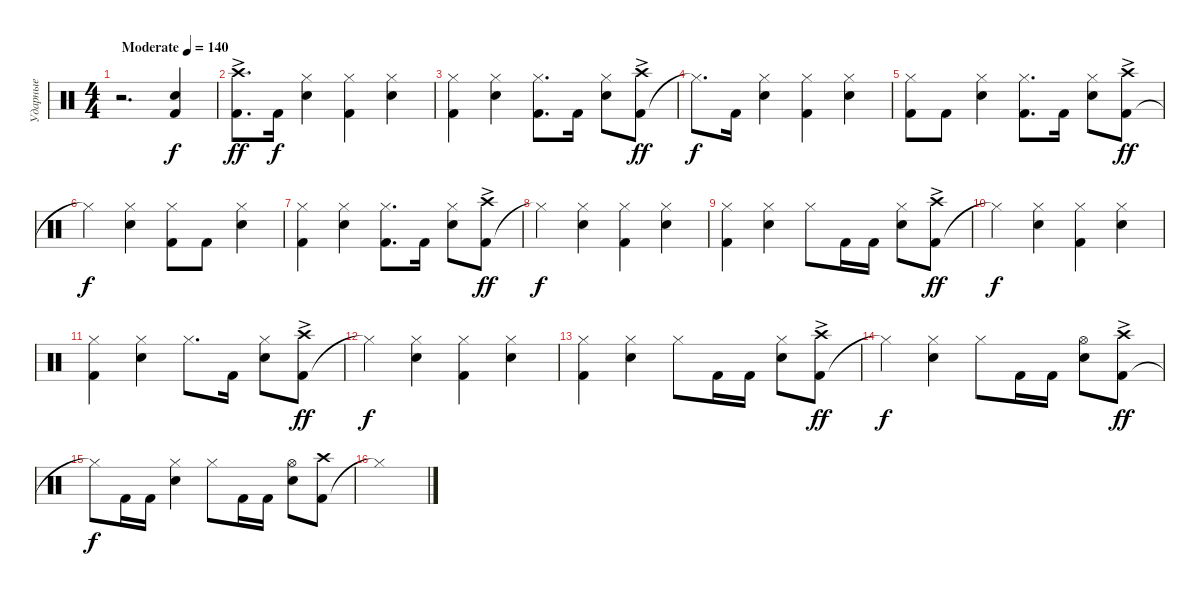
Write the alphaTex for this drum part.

\track ("Ударные" "Ударные") {instrument percussion}
\staff {score}
\articulation defaults
\ts (4 4)
\tempo (140 "Moderate")
\clef neutral
\ks c
r.2{d dy f} ("Kick (hit) 2" "Snare (hit) 2").4 |
("Kick (hit) 2" "Crash high (hit)"{ac}).8{d dy ff} "Kick (hit) 2".16{dy f} ("Snare (hit) 2" "Hi-Hat (closed)").4 ("Kick (hit) 2" "Hi-Hat (closed)").4 ("Snare (hit) 2" "Hi-Hat (closed)").4 |
("Kick (hit) 2" "Hi-Hat (closed)").4 ("Snare (hit) 2" "Hi-Hat (closed)").4 ("Kick (hit) 2" "Hi-Hat (closed)").8{d} "Kick (hit) 2".16 ("Snare (hit) 2" "Hi-Hat (closed)").8 ("Kick (hit) 2" "Crash high (hit)"{ac}).8{dy ff} |
"Hi-Hat (closed)"{t}.8{d dy f} "Kick (hit) 2".16 ("Snare (hit) 2" "Hi-Hat (closed)").4 ("Kick (hit) 2" "Hi-Hat (closed)").4 ("Snare (hit) 2" "Hi-Hat (closed)").4 |
("Kick (hit) 2" "Hi-Hat (closed)").8 "Kick (hit) 2".8 ("Snare (hit) 2" "Hi-Hat (closed)").4 ("Kick (hit) 2" "Hi-Hat (closed)").8{d} "Kick (hit) 2".16 ("Snare (hit) 2" "Hi-Hat (closed)").8 ("Kick (hit) 2" "Crash high (hit)"{ac}).8{dy ff} |
"Hi-Hat (closed)"{t}.4{dy f} ("Snare (hit) 2" "Hi-Hat (closed)").4 ("Kick (hit) 2" "Hi-Hat (closed)").8 "Kick (hit) 2".8 ("Snare (hit) 2" "Hi-Hat (closed)").4 |
("Kick (hit) 2" "Hi-Hat (closed)").4 ("Snare (hit) 2" "Hi-Hat (closed)").4 ("Kick (hit) 2" "Hi-Hat (closed)").8{d} "Kick (hit) 2".16 ("Snare (hit) 2" "Hi-Hat (closed)").8 ("Kick (hit) 2" "Crash high (hit)"{ac}).8{dy ff} |
"Hi-Hat (closed)"{t}.4{dy f} ("Snare (hit) 2" "Hi-Hat (closed)").4 ("Kick (hit) 2" "Hi-Hat (closed)").4 ("Snare (hit) 2" "Hi-Hat (closed)").4 |
("Kick (hit) 2" "Hi-Hat (closed)").4 ("Snare (hit) 2" "Hi-Hat (closed)").4 "Hi-Hat (closed)".8 "Kick (hit) 2".16 "Kick (hit) 2".16 ("Snare (hit) 2" "Hi-Hat (closed)").8 ("Kick (hit) 2" "Crash high (hit)"{ac}).8{dy ff} |
"Hi-Hat (closed)"{t}.4{dy f} ("Snare (hit) 2" "Hi-Hat (closed)").4 ("Kick (hit) 2" "Hi-Hat (closed)").4 ("Snare (hit) 2" "Hi-Hat (closed)").4 |
("Kick (hit) 2" "Hi-Hat (closed)").4 ("Snare (hit) 2" "Hi-Hat (closed)").4 "Hi-Hat (closed)".8{d} "Kick (hit) 2".16 ("Snare (hit) 2" "Hi-Hat (closed)").8 ("Kick (hit) 2" "Crash high (hit)"{ac}).8{dy ff} |
"Hi-Hat (closed)"{t}.4{dy f} ("Snare (hit) 2" "Hi-Hat (closed)").4 ("Kick (hit) 2" "Hi-Hat (closed)").4 ("Snare (hit) 2" "Hi-Hat (closed)").4 |
("Kick (hit) 2" "Hi-Hat (closed)").4 ("Snare (hit) 2" "Hi-Hat (closed)").4 "Hi-Hat (closed)".8 "Kick (hit) 2".16 "Kick (hit) 2".16 ("Snare (hit) 2" "Hi-Hat (closed)").8 ("Kick (hit) 2" "Crash high (hit)"{ac}).8{dy ff} |
"Hi-Hat (closed)"{t}.4{dy f} ("Snare (hit) 2" "Hi-Hat (closed)").4 "Hi-Hat (closed)".8 "Kick (hit) 2".16 "Kick (hit) 2".16 ("Snare (hit) 2" "Hi-Hat (open)").8 ("Kick (hit) 2" "Crash high (hit)"{ac}).8{dy ff} |
"Hi-Hat (closed)"{t}.8{dy f} "Kick (hit) 2".16 "Kick (hit) 2".16 ("Snare (hit) 2" "Hi-Hat (closed)").4 "Hi-Hat (closed)".8 "Kick (hit) 2".16 "Kick (hit) 2".16 ("Snare (hit) 2" "Hi-Hat (open)").8 ("Kick (hit) 2" "Crash high (hit)").8 |
"Hi-Hat (closed)"{t}.1
